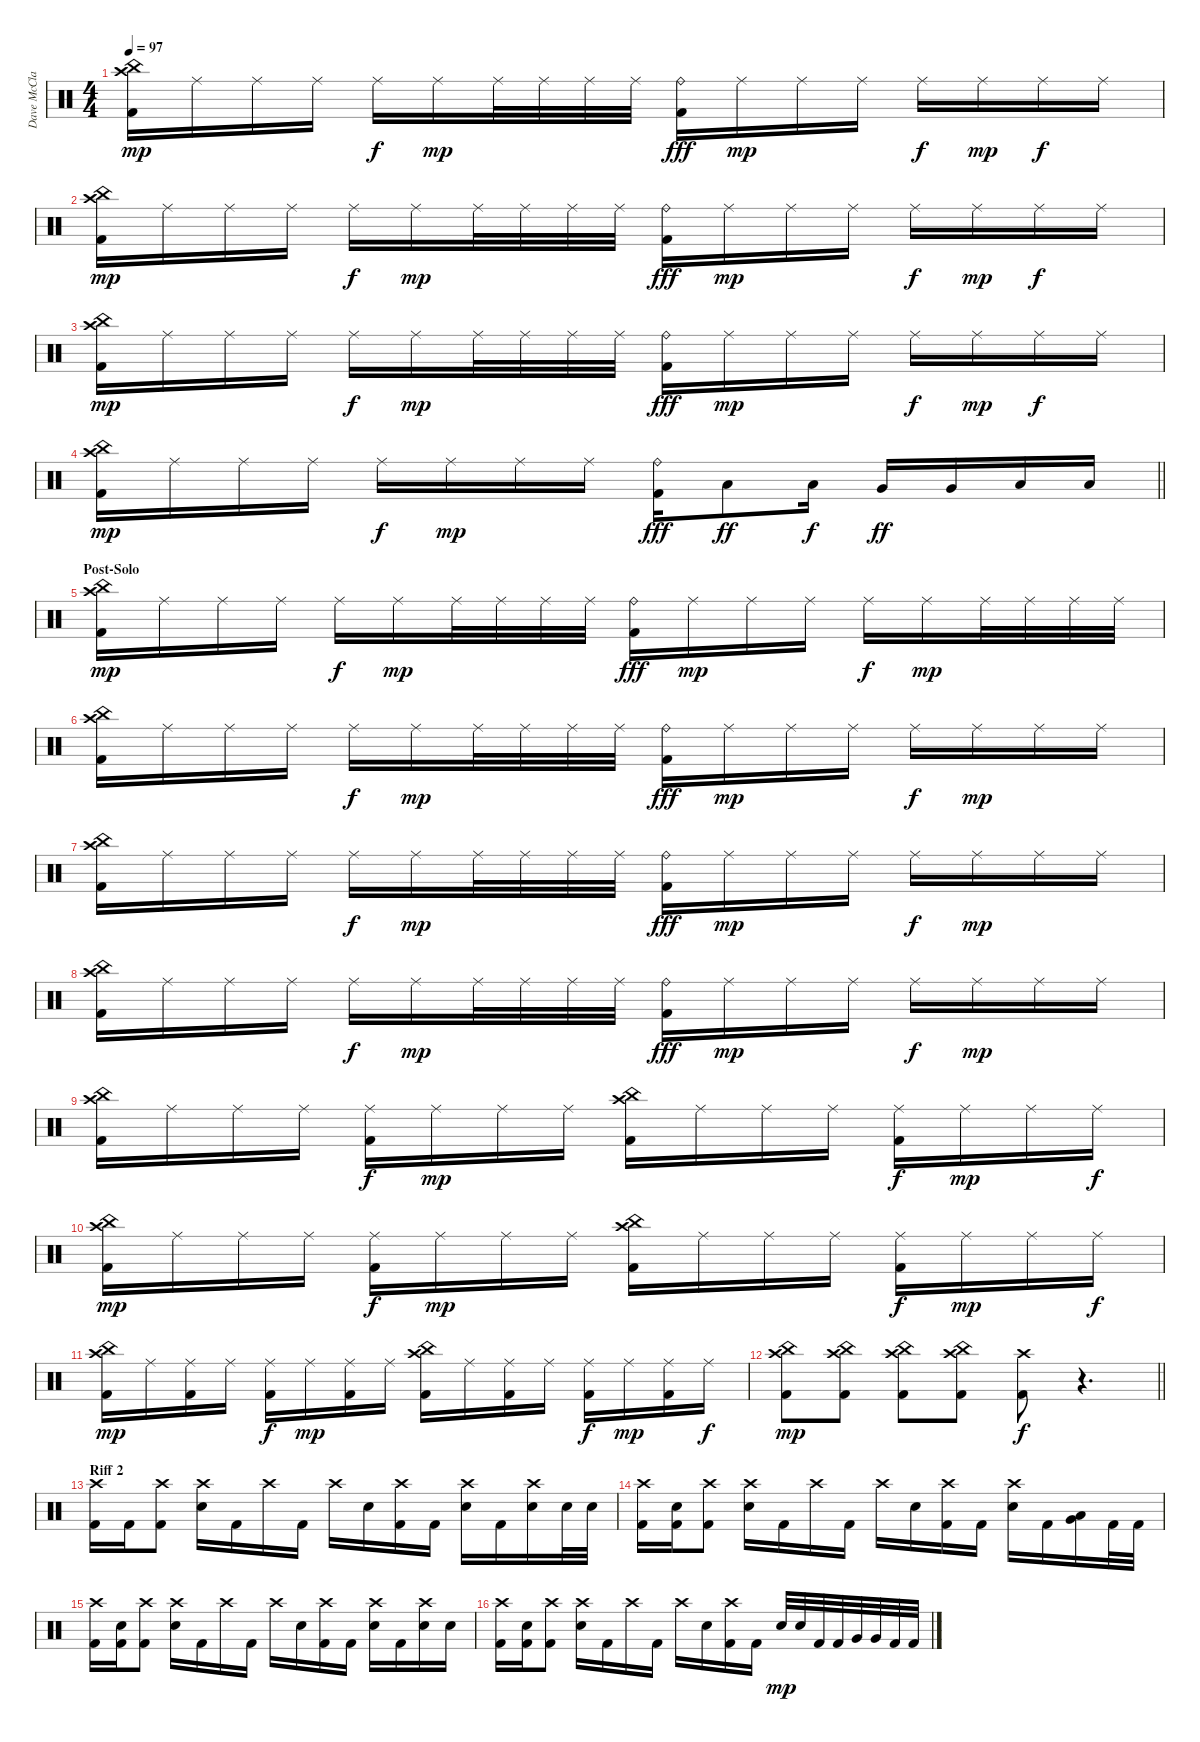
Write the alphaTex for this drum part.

\track ("Dave McClain" "Dave McCla") {instrument percussion}
\staff {score}
\articulation defaults
\ts (4 4)
\tempo 97
\clef neutral
\ks c
("China (hit)" "Crash high (hit)" "Kick (hit) 2").16{dy mp} "Ride (middle)".16 "Ride (middle)".16 "Ride (middle)".16 "Ride (middle)".16{dy f} "Ride (middle)".16{dy mp} "Ride (middle)".32 "Ride (middle)".32 "Ride (middle)".32 "Ride (middle)".32 ("Ride (bell)" "Kick (hit) 2").16{dy fff} "Ride (middle)".16{dy mp} "Ride (middle)".16 "Ride (middle)".16 "Ride (middle)".16{dy f} "Ride (middle)".16{dy mp} "Ride (middle)".16{dy f} "Ride (middle)".16 |
("China (hit)" "Crash high (hit)" "Kick (hit) 2").16{dy mp} "Ride (middle)".16 "Ride (middle)".16 "Ride (middle)".16 "Ride (middle)".16{dy f} "Ride (middle)".16{dy mp} "Ride (middle)".32 "Ride (middle)".32 "Ride (middle)".32 "Ride (middle)".32 ("Ride (bell)" "Kick (hit) 2").16{dy fff} "Ride (middle)".16{dy mp} "Ride (middle)".16 "Ride (middle)".16 "Ride (middle)".16{dy f} "Ride (middle)".16{dy mp} "Ride (middle)".16{dy f} "Ride (middle)".16 |
("China (hit)" "Crash high (hit)" "Kick (hit) 2").16{dy mp} "Ride (middle)".16 "Ride (middle)".16 "Ride (middle)".16 "Ride (middle)".16{dy f} "Ride (middle)".16{dy mp} "Ride (middle)".32 "Ride (middle)".32 "Ride (middle)".32 "Ride (middle)".32 ("Ride (bell)" "Kick (hit) 2").16{dy fff} "Ride (middle)".16{dy mp} "Ride (middle)".16 "Ride (middle)".16 "Ride (middle)".16{dy f} "Ride (middle)".16{dy mp} "Ride (middle)".16{dy f} "Ride (middle)".16 |
\barLineRight lightlight
("China (hit)" "Crash high (hit)" "Kick (hit) 2").16{dy mp} "Ride (middle)".16 "Ride (middle)".16 "Ride (middle)".16 "Ride (middle)".16{dy f} "Ride (middle)".16{dy mp} "Ride (middle)".16 "Ride (middle)".16 ("Ride (bell)" "Kick (hit) 2").16{dy fff} "Low Tom (hit)".8{dy ff} "Low Tom (hit)".16{dy f} "Very Low Tom (hit)".16{dy ff} "Very Low Tom (hit)".16 "Low Floor Tom (hit)".16 "Low Floor Tom (hit)".16 |
\section ("" "Post-Solo")
("China (hit)" "Crash high (hit)" "Kick (hit) 2").16{dy mp} "Ride (middle)".16 "Ride (middle)".16 "Ride (middle)".16 "Ride (middle)".16{dy f} "Ride (middle)".16{dy mp} "Ride (middle)".32 "Ride (middle)".32 "Ride (middle)".32 "Ride (middle)".32 ("Ride (bell)" "Kick (hit) 2").16{dy fff} "Ride (middle)".16{dy mp} "Ride (middle)".16 "Ride (middle)".16 "Ride (middle)".16{dy f} "Ride (middle)".16{dy mp} "Ride (middle)".32 "Ride (middle)".32 "Ride (middle)".32 "Ride (middle)".32 |
("China (hit)" "Crash high (hit)" "Kick (hit) 2").16 "Ride (middle)".16 "Ride (middle)".16 "Ride (middle)".16 "Ride (middle)".16{dy f} "Ride (middle)".16{dy mp} "Ride (middle)".32 "Ride (middle)".32 "Ride (middle)".32 "Ride (middle)".32 ("Ride (bell)" "Kick (hit) 2").16{dy fff} "Ride (middle)".16{dy mp} "Ride (middle)".16 "Ride (middle)".16 "Ride (middle)".16{dy f} "Ride (middle)".16{dy mp} "Ride (middle)".16 "Ride (middle)".16 |
("China (hit)" "Crash high (hit)" "Kick (hit) 2").16 "Ride (middle)".16 "Ride (middle)".16 "Ride (middle)".16 "Ride (middle)".16{dy f} "Ride (middle)".16{dy mp} "Ride (middle)".32 "Ride (middle)".32 "Ride (middle)".32 "Ride (middle)".32 ("Ride (bell)" "Kick (hit) 2").16{dy fff} "Ride (middle)".16{dy mp} "Ride (middle)".16 "Ride (middle)".16 "Ride (middle)".16{dy f} "Ride (middle)".16{dy mp} "Ride (middle)".16 "Ride (middle)".16 |
("China (hit)" "Crash high (hit)" "Kick (hit) 2").16 "Ride (middle)".16 "Ride (middle)".16 "Ride (middle)".16 "Ride (middle)".16{dy f} "Ride (middle)".16{dy mp} "Ride (middle)".32 "Ride (middle)".32 "Ride (middle)".32 "Ride (middle)".32 ("Ride (bell)" "Kick (hit) 2").16{dy fff} "Ride (middle)".16{dy mp} "Ride (middle)".16 "Ride (middle)".16 "Ride (middle)".16{dy f} "Ride (middle)".16{dy mp} "Ride (middle)".16 "Ride (middle)".16 |
("China (hit)" "Crash high (hit)" "Kick (hit) 2").16 "Ride (middle)".16 "Ride (middle)".16 "Ride (middle)".16 ("Ride (middle)" "Kick (hit) 2").16{dy f} "Ride (middle)".16{dy mp} "Ride (middle)".16 "Ride (middle)".16 ("China (hit)" "Crash high (hit)" "Kick (hit) 2").16 "Ride (middle)".16 "Ride (middle)".16 "Ride (middle)".16 ("Ride (middle)" "Kick (hit) 2").16{dy f} "Ride (middle)".16{dy mp} "Ride (middle)".16 "Ride (middle)".16{dy f} |
("China (hit)" "Crash high (hit)" "Kick (hit) 2").16{dy mp} "Ride (middle)".16 "Ride (middle)".16 "Ride (middle)".16 ("Ride (middle)" "Kick (hit) 2").16{dy f} "Ride (middle)".16{dy mp} "Ride (middle)".16 "Ride (middle)".16 ("China (hit)" "Crash high (hit)" "Kick (hit) 2").16 "Ride (middle)".16 "Ride (middle)".16 "Ride (middle)".16 ("Ride (middle)" "Kick (hit) 2").16{dy f} "Ride (middle)".16{dy mp} "Ride (middle)".16 "Ride (middle)".16{dy f} |
("China (hit)" "Crash high (hit)" "Kick (hit) 2").16{dy mp} "Ride (middle)".16 ("Ride (middle)" "Kick (hit) 2").16 "Ride (middle)".16 ("Ride (middle)" "Kick (hit) 2").16{dy f} "Ride (middle)".16{dy mp} ("Ride (middle)" "Kick (hit) 2").16 "Ride (middle)".16 ("China (hit)" "Crash high (hit)" "Kick (hit) 2").16 "Ride (middle)".16 ("Ride (middle)" "Kick (hit) 2").16 "Ride (middle)".16 ("Ride (middle)" "Kick (hit) 2").16{dy f} "Ride (middle)".16{dy mp} ("Ride (middle)" "Kick (hit) 2").16 "Ride (middle)".16{dy f} |
\barLineRight lightlight
("China (hit)" "Crash high (hit)" "Kick (hit) 2").8{dy mp} ("China (hit)" "Crash high (hit)" "Kick (hit) 2").8 ("China (hit)" "Crash high (hit)" "Kick (hit) 2").8 ("China (hit)" "Crash high (hit)" "Kick (hit) 2").8 ("Crash high (hit)" "Kick (hit) 2").8{dy f} r.4{d volume 0} |
\section ("" "Riff 2")
("Crash high (hit)" "Kick (hit) 2").16{volume 10} "Kick (hit) 2".16 ("Crash high (hit)" "Kick (hit) 2").8 ("Crash high (hit)" "Snare (hit) 2").16 "Kick (hit) 2".16 "Crash high (hit)".16 "Kick (hit) 2".16 "Crash high (hit)".16 "Snare (hit) 2".16 ("Crash high (hit)" "Kick (hit) 2").16 "Kick (hit) 2".16 ("Crash high (hit)" "Snare (hit) 2").16 "Kick (hit) 2".16 ("Crash high (hit)" "Snare (hit) 2").16 "Snare (hit) 2".32 "Snare (hit) 2".32 |
("Crash high (hit)" "Kick (hit) 2").16 ("Snare (hit) 2" "Kick (hit) 2").16 ("Crash high (hit)" "Kick (hit) 2").8 ("Crash high (hit)" "Snare (hit) 2").16 "Kick (hit) 2".16 "Crash high (hit)".16 "Kick (hit) 2".16 "Crash high (hit)".16 "Snare (hit) 2".16 ("Crash high (hit)" "Kick (hit) 2").16 "Kick (hit) 2".16 ("Crash high (hit)" "Snare (hit) 2").16 "Kick (hit) 2".16 ("Low Floor Tom (hit)" "Very Low Tom (hit)").16 "Kick (hit) 2".32 "Kick (hit) 2".32 |
("Crash high (hit)" "Kick (hit) 2").16 ("Snare (hit) 2" "Kick (hit) 2").16 ("Crash high (hit)" "Kick (hit) 2").8 ("Crash high (hit)" "Snare (hit) 2").16 "Kick (hit) 2".16 "Crash high (hit)".16 "Kick (hit) 2".16 "Crash high (hit)".16 "Snare (hit) 2".16 ("Crash high (hit)" "Kick (hit) 2").16 "Kick (hit) 2".16 ("Crash high (hit)" "Snare (hit) 2").16 "Kick (hit) 2".16 ("Crash high (hit)" "Snare (hit) 2").16 "Snare (hit) 2".16 |
("Crash high (hit)" "Kick (hit) 2").16 ("Snare (hit) 2" "Kick (hit) 2").16 ("Crash high (hit)" "Kick (hit) 2").8 ("Crash high (hit)" "Snare (hit) 2").16 "Kick (hit) 2".16 "Crash high (hit)".16 "Kick (hit) 2".16 "Crash high (hit)".16 "Snare (hit) 2".16 ("Crash high (hit)" "Kick (hit) 2").16 "Kick (hit) 2".16 "Snare (hit) 2".32{dy mp} "Snare (hit) 2".32 "Kick (hit) 2".32 "Kick (hit) 2".32 "Very Low Tom (hit)".32 "Very Low Tom (hit)".32 "Kick (hit) 2".32 "Kick (hit) 2".32
